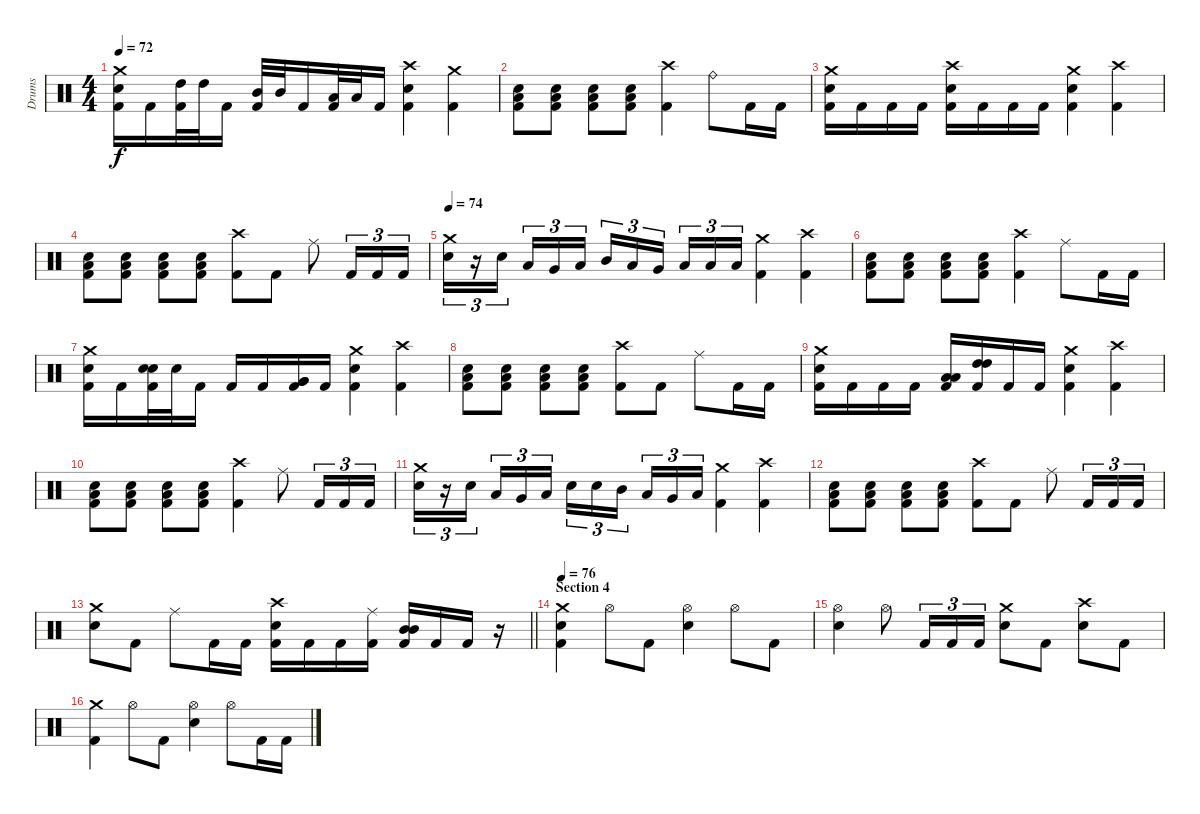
\track ("Drums" "Drums") {instrument percussion}
\staff {score}
\articulation defaults
\ts (4 4)
\tempo 72
\clef neutral
\ks c
("Crash medium (hit)" "Electric Snare (hit)" "Kick (hit) 2").16{dy f} "Kick (hit) 2".16 ("High Tom (hit)" "Kick (hit) 2").32 "High Tom (hit)".32 "Kick (hit) 2".16 ("Mid Tom (hit)" "Kick (hit) 2").32 "Mid Tom (hit)".32 "Kick (hit) 2".16 ("Low Tom (hit)" "Kick (hit) 2").32 "Low Tom (hit)".32 "Kick (hit) 2".16 ("Crash high (hit)" "Electric Snare (hit)" "Kick (hit) 2").4 ("Crash medium (hit)" "Kick (hit) 2").4 |
("Low Floor Tom (hit)" "Electric Snare (hit)" "Kick (hit) 2").8 ("Low Floor Tom (hit)" "Electric Snare (hit)" "Kick (hit) 2").8 ("Low Floor Tom (hit)" "Electric Snare (hit)" "Kick (hit) 2").8 ("Low Floor Tom (hit)" "Electric Snare (hit)" "Kick (hit) 2").8 ("Crash high (hit)" "Kick (hit) 2").4 "Ride (bell)".8 "Kick (hit) 2".16 "Kick (hit) 2".16 |
("Crash medium (hit)" "Electric Snare (hit)" "Kick (hit) 2").16 "Kick (hit) 2".16 "Kick (hit) 2".16 "Kick (hit) 2".16 ("Crash high (hit)" "Electric Snare (hit)" "Kick (hit) 2").16 "Kick (hit) 2".16 "Kick (hit) 2".16 "Kick (hit) 2".16 ("Crash medium (hit)" "Electric Snare (hit)" "Kick (hit) 2").4 ("Crash high (hit)" "Kick (hit) 2").4 |
("Low Floor Tom (hit)" "Electric Snare (hit)" "Kick (hit) 2").8 ("Low Floor Tom (hit)" "Electric Snare (hit)" "Kick (hit) 2").8 ("Low Floor Tom (hit)" "Electric Snare (hit)" "Kick (hit) 2").8 ("Low Floor Tom (hit)" "Electric Snare (hit)" "Kick (hit) 2").8 ("Crash high (hit)" "Kick (hit) 2").8 "Kick (hit) 2".8 "Ride (middle)".8 "Kick (hit) 2".16{tu (3 2)} "Kick (hit) 2".16{tu (3 2)} "Kick (hit) 2".16{tu (3 2)} |
\tempo 74
("Crash medium (hit)" "Electric Snare (hit)").16{tu (3 2)} r.16{tu (3 2)} "Electric Snare (hit)".16{tu (3 2) beam splitsecondary} "Low Tom (hit)".16{tu (3 2)} "Very Low Tom (hit)".16{tu (3 2)} "Low Floor Tom (hit)".16{tu (3 2)} "Mid Tom (hit)".16{tu (3 2)} "Low Tom (hit)".16{tu (3 2)} "Very Low Tom (hit)".16{tu (3 2) beam splitsecondary} "Low Floor Tom (hit)".16{tu (3 2)} "Low Floor Tom (hit)".16{tu (3 2)} "Low Floor Tom (hit)".16{tu (3 2)} ("Crash medium (hit)" "Kick (hit) 2").4 ("Crash high (hit)" "Kick (hit) 2").4 |
("Low Floor Tom (hit)" "Electric Snare (hit)" "Kick (hit) 2").8 ("Low Floor Tom (hit)" "Electric Snare (hit)" "Kick (hit) 2").8 ("Low Floor Tom (hit)" "Electric Snare (hit)" "Kick (hit) 2").8 ("Low Floor Tom (hit)" "Electric Snare (hit)" "Kick (hit) 2").8 ("Crash high (hit)" "Kick (hit) 2").4 "Ride (middle)".8 "Kick (hit) 2".16 "Kick (hit) 2".16 |
("Crash medium (hit)" "Electric Snare (hit)" "Kick (hit) 2").16 "Kick (hit) 2".16 ("Electric Snare (hit)" "Electric Snare (hit)" "Kick (hit) 2").32 "Electric Snare (hit)".32 "Kick (hit) 2".16 "Kick (hit) 2".16 "Kick (hit) 2".16 ("Very Low Tom (hit)" "Very Low Tom (hit)" "Kick (hit) 2").16{bd 60} "Kick (hit) 2".16 ("Crash medium (hit)" "Electric Snare (hit)" "Kick (hit) 2").4 ("Crash high (hit)" "Kick (hit) 2").4 |
("Low Floor Tom (hit)" "Electric Snare (hit)" "Kick (hit) 2").8 ("Low Floor Tom (hit)" "Electric Snare (hit)" "Kick (hit) 2").8 ("Low Floor Tom (hit)" "Electric Snare (hit)" "Kick (hit) 2").8 ("Low Floor Tom (hit)" "Electric Snare (hit)" "Kick (hit) 2").8 ("Crash high (hit)" "Kick (hit) 2").8 "Kick (hit) 2".8 "Ride (middle)".8 "Kick (hit) 2".16 "Kick (hit) 2".16 |
("Crash medium (hit)" "Electric Snare (hit)" "Kick (hit) 2").16 "Kick (hit) 2".16 "Kick (hit) 2".16 "Kick (hit) 2".16 ("Low Tom (hit)" "Low Tom (hit)" "Kick (hit) 2").16 ("High Tom (hit)" "High Tom (hit)" "Kick (hit) 2").16 "Kick (hit) 2".16 "Kick (hit) 2".16 ("Crash medium (hit)" "Electric Snare (hit)" "Kick (hit) 2").4 ("Crash high (hit)" "Kick (hit) 2").4 |
("Low Floor Tom (hit)" "Electric Snare (hit)" "Kick (hit) 2").8 ("Low Floor Tom (hit)" "Electric Snare (hit)" "Kick (hit) 2").8 ("Low Floor Tom (hit)" "Electric Snare (hit)" "Kick (hit) 2").8 ("Low Floor Tom (hit)" "Electric Snare (hit)" "Kick (hit) 2").8 ("Crash high (hit)" "Kick (hit) 2").4 "Ride (middle)".8 "Kick (hit) 2".16{tu (3 2)} "Kick (hit) 2".16{tu (3 2)} "Kick (hit) 2".16{tu (3 2)} |
("Crash medium (hit)" "Electric Snare (hit)").16{tu (3 2)} r.16{tu (3 2)} "Electric Snare (hit)".16{tu (3 2) beam splitsecondary} "Low Tom (hit)".16{tu (3 2)} "Very Low Tom (hit)".16{tu (3 2)} "Low Floor Tom (hit)".16{tu (3 2)} "Electric Snare (hit)".16{tu (3 2)} "Electric Snare (hit)".16{tu (3 2)} "Mid Tom (hit)".16{tu (3 2) beam splitsecondary} "Low Tom (hit)".16{tu (3 2)} "Very Low Tom (hit)".16{tu (3 2)} "Low Floor Tom (hit)".16{tu (3 2)} ("Crash medium (hit)" "Kick (hit) 2").4 ("Crash high (hit)" "Kick (hit) 2").4 |
("Low Floor Tom (hit)" "Electric Snare (hit)" "Kick (hit) 2").8 ("Low Floor Tom (hit)" "Electric Snare (hit)" "Kick (hit) 2").8 ("Low Floor Tom (hit)" "Electric Snare (hit)" "Kick (hit) 2").8 ("Low Floor Tom (hit)" "Electric Snare (hit)" "Kick (hit) 2").8 ("Crash high (hit)" "Kick (hit) 2").8 "Kick (hit) 2".8 "Ride (middle)".8 "Kick (hit) 2".16{tu (3 2)} "Kick (hit) 2".16{tu (3 2)} "Kick (hit) 2".16{tu (3 2)} |
\barLineRight lightlight
("Crash medium (hit)" "Electric Snare (hit)").8 "Kick (hit) 2".8 "Ride (middle)".8 "Kick (hit) 2".16 "Kick (hit) 2".16 ("Crash high (hit)" "Electric Snare (hit)" "Kick (hit) 2").16 "Kick (hit) 2".16 "Kick (hit) 2".16 ("Ride (middle)" "Kick (hit) 2").16 ("Mid Tom (hit)" "Mid Tom (hit)" "Kick (hit) 2").16 "Kick (hit) 2".16 "Kick (hit) 2".16 r.16 |
\section ("" "Section 4")
\tempo 76
("Crash medium (hit)" "Electric Snare (hit)" "Kick (hit) 2").4 "Hi-Hat (open)".8 "Kick (hit) 2".8 ("Hi-Hat (open)" "Electric Snare (hit)").4 "Hi-Hat (open)".8 "Kick (hit) 2".8 |
("Hi-Hat (open)" "Electric Snare (hit)").4 "Hi-Hat (open)".8 "Kick (hit) 2".16{tu (3 2)} "Kick (hit) 2".16{tu (3 2)} "Kick (hit) 2".16{tu (3 2)} ("Crash medium (hit)" "Electric Snare (hit)").8 "Kick (hit) 2".8 ("Crash high (hit)" "Electric Snare (hit)").8 "Kick (hit) 2".8 |
("Crash medium (hit)" "Kick (hit) 2").4 "Hi-Hat (open)".8 "Kick (hit) 2".8 ("Hi-Hat (open)" "Electric Snare (hit)").4 "Hi-Hat (open)".8 "Kick (hit) 2".16 "Kick (hit) 2".16
